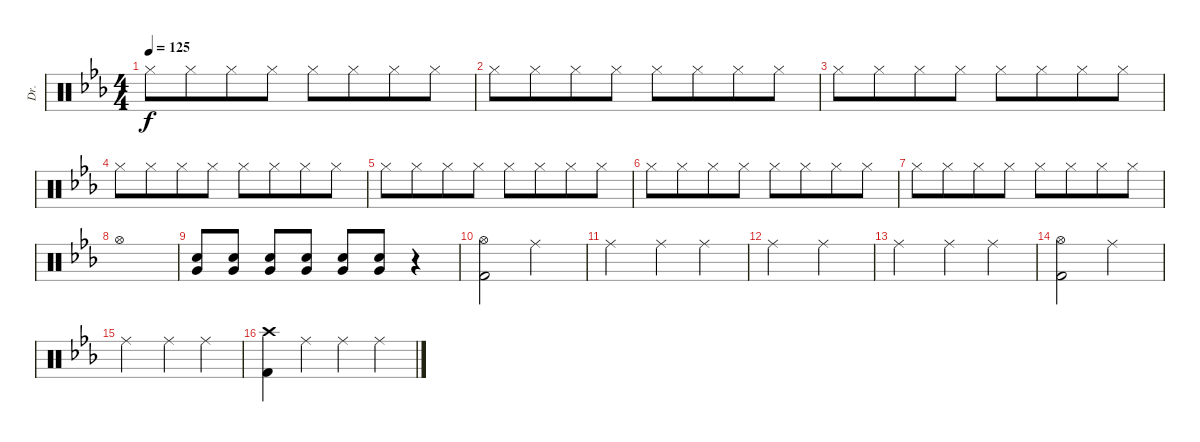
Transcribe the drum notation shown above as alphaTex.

\track ("Dr." "Dr.") {instrument percussion}
\staff {score}
\articulation defaults
\ts (4 4)
\tempo 125
\clef neutral
\ks eb "Hi-Hat (closed)".8{dy f} "Hi-Hat (closed)".8{beam merge} "Hi-Hat (closed)".8 "Hi-Hat (closed)".8 "Hi-Hat (closed)".8 "Hi-Hat (closed)".8{beam merge} "Hi-Hat (closed)".8 "Hi-Hat (closed)".8
|
"Hi-Hat (closed)".8 "Hi-Hat (closed)".8{beam merge} "Hi-Hat (closed)".8 "Hi-Hat (closed)".8 "Hi-Hat (closed)".8 "Hi-Hat (closed)".8{beam merge} "Hi-Hat (closed)".8 "Hi-Hat (closed)".8 |
"Hi-Hat (closed)".8 "Hi-Hat (closed)".8{beam merge} "Hi-Hat (closed)".8 "Hi-Hat (closed)".8 "Hi-Hat (closed)".8 "Hi-Hat (closed)".8{beam merge} "Hi-Hat (closed)".8 "Hi-Hat (closed)".8 |
"Hi-Hat (closed)".8 "Hi-Hat (closed)".8{beam merge} "Hi-Hat (closed)".8 "Hi-Hat (closed)".8 "Hi-Hat (closed)".8 "Hi-Hat (closed)".8{beam merge} "Hi-Hat (closed)".8 "Hi-Hat (closed)".8 |
"Hi-Hat (closed)".8 "Hi-Hat (closed)".8{beam merge} "Hi-Hat (closed)".8 "Hi-Hat (closed)".8 "Hi-Hat (closed)".8 "Hi-Hat (closed)".8{beam merge} "Hi-Hat (closed)".8 "Hi-Hat (closed)".8 |
"Hi-Hat (closed)".8 "Hi-Hat (closed)".8{beam merge} "Hi-Hat (closed)".8 "Hi-Hat (closed)".8 "Hi-Hat (closed)".8 "Hi-Hat (closed)".8{beam merge} "Hi-Hat (closed)".8 "Hi-Hat (closed)".8 |
"Hi-Hat (closed)".8 "Hi-Hat (closed)".8{beam merge} "Hi-Hat (closed)".8 "Hi-Hat (closed)".8 "Hi-Hat (closed)".8 "Hi-Hat (closed)".8{beam merge} "Hi-Hat (closed)".8 "Hi-Hat (closed)".8 |
"Hi-Hat (open)".1 |
("Electric Snare (hit)" "Very Low Tom (hit)").8 ("Electric Snare (hit)" "Very Low Tom (hit)").8 ("Electric Snare (hit)" "Very Low Tom (hit)").8 ("Electric Snare (hit)" "Very Low Tom (hit)").8 ("Electric Snare (hit)" "Very Low Tom (hit)").8 ("Electric Snare (hit)" "Very Low Tom (hit)").8 r.4 |
("Hi-Hat (open)" "Kick (hit) 2").2 "Ride (middle)".2 |
"Ride (middle)".2 "Ride (middle)".4 "Ride (middle)".4 |
"Ride (middle)".2 "Ride (middle)".2 |
"Ride (middle)".2 "Ride (middle)".4 "Ride (middle)".4 |
("Hi-Hat (open)" "Kick (hit) 2").2 "Ride (middle)".2 |
"Ride (middle)".2 "Ride (middle)".4 "Ride (middle)".4 |
("Crash high (hit)" "Kick (hit) 2").4 "Ride (middle)".4 "Ride (middle)".4 "Ride (middle)".4
